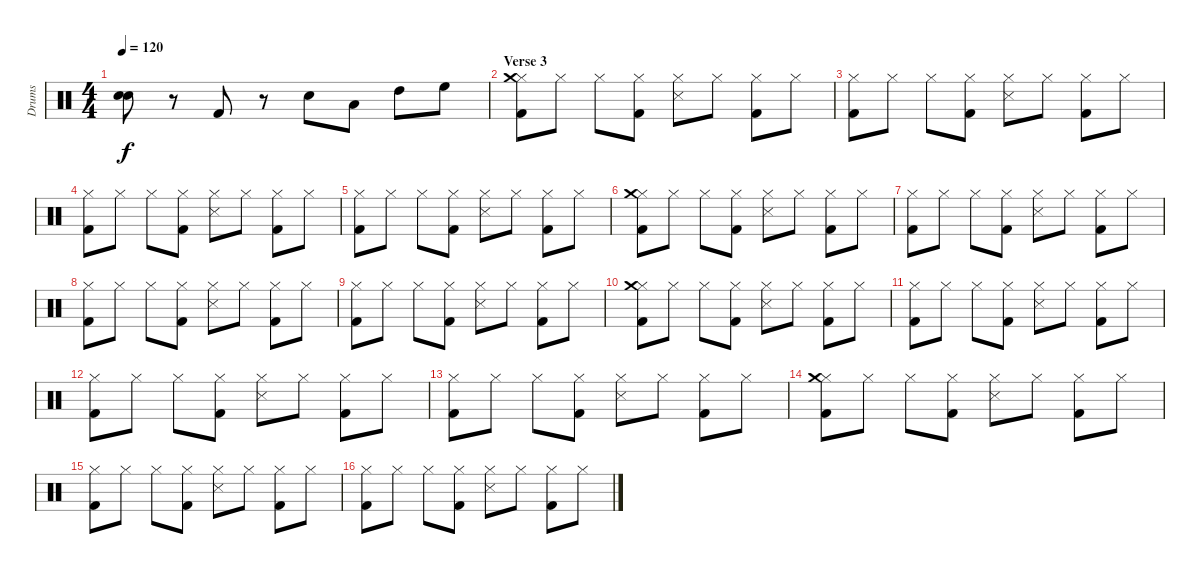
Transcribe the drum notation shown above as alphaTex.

\track ("Drums" "Drums") {instrument percussion}
\staff {score}
\articulation defaults
\ts (4 4)
\tempo 120
\clef neutral
\ks c
("Snare (hit) 2" "Electric Snare (hit)").8{dy f} r.8 "Kick (hit) 2".8 r.8 "Snare (hit) 2".8 "Low Tom (hit)".8 "High Tom (hit)".8 "High Floor Tom (hit)".8 |
\section ("" "Verse 3")
("Hi-Hat (closed)" "Kick (hit) 2" "Crash medium (hit)").8 "Hi-Hat (closed)".8 "Hi-Hat (closed)".8 ("Hi-Hat (closed)" "Kick (hit) 2").8 ("Hi-Hat (closed)" "Snare (side stick) 3").8 "Hi-Hat (closed)".8 ("Hi-Hat (closed)" "Kick (hit) 2").8 "Hi-Hat (closed)".8 |
("Hi-Hat (closed)" "Kick (hit) 2").8 "Hi-Hat (closed)".8 "Hi-Hat (closed)".8 ("Hi-Hat (closed)" "Kick (hit) 2").8 ("Hi-Hat (closed)" "Snare (side stick) 3").8 "Hi-Hat (closed)".8 ("Hi-Hat (closed)" "Kick (hit) 2").8 "Hi-Hat (closed)".8 |
("Hi-Hat (closed)" "Kick (hit) 2").8 "Hi-Hat (closed)".8 "Hi-Hat (closed)".8 ("Hi-Hat (closed)" "Kick (hit) 2").8 ("Hi-Hat (closed)" "Snare (side stick) 3").8 "Hi-Hat (closed)".8 ("Hi-Hat (closed)" "Kick (hit) 2").8 "Hi-Hat (closed)".8 |
("Hi-Hat (closed)" "Kick (hit) 2").8 "Hi-Hat (closed)".8 "Hi-Hat (closed)".8 ("Hi-Hat (closed)" "Kick (hit) 2").8 ("Hi-Hat (closed)" "Snare (side stick) 3").8 "Hi-Hat (closed)".8 ("Hi-Hat (closed)" "Kick (hit) 2").8 "Hi-Hat (closed)".8 |
("Hi-Hat (closed)" "Kick (hit) 2" "Crash medium (hit)").8 "Hi-Hat (closed)".8 "Hi-Hat (closed)".8 ("Hi-Hat (closed)" "Kick (hit) 2").8 ("Hi-Hat (closed)" "Snare (side stick) 3").8 "Hi-Hat (closed)".8 ("Hi-Hat (closed)" "Kick (hit) 2").8 "Hi-Hat (closed)".8 |
("Hi-Hat (closed)" "Kick (hit) 2").8 "Hi-Hat (closed)".8 "Hi-Hat (closed)".8 ("Hi-Hat (closed)" "Kick (hit) 2").8 ("Hi-Hat (closed)" "Snare (side stick) 3").8 "Hi-Hat (closed)".8 ("Hi-Hat (closed)" "Kick (hit) 2").8 "Hi-Hat (closed)".8 |
("Hi-Hat (closed)" "Kick (hit) 2").8 "Hi-Hat (closed)".8 "Hi-Hat (closed)".8 ("Hi-Hat (closed)" "Kick (hit) 2").8 ("Hi-Hat (closed)" "Snare (side stick) 3").8 "Hi-Hat (closed)".8 ("Hi-Hat (closed)" "Kick (hit) 2").8 "Hi-Hat (closed)".8 |
("Hi-Hat (closed)" "Kick (hit) 2").8 "Hi-Hat (closed)".8 "Hi-Hat (closed)".8 ("Hi-Hat (closed)" "Kick (hit) 2").8 ("Hi-Hat (closed)" "Snare (side stick) 3").8 "Hi-Hat (closed)".8 ("Hi-Hat (closed)" "Kick (hit) 2").8 "Hi-Hat (closed)".8 |
("Hi-Hat (closed)" "Kick (hit) 2" "Crash medium (hit)").8 "Hi-Hat (closed)".8 "Hi-Hat (closed)".8 ("Hi-Hat (closed)" "Kick (hit) 2").8 ("Hi-Hat (closed)" "Snare (side stick) 3").8 "Hi-Hat (closed)".8 ("Hi-Hat (closed)" "Kick (hit) 2").8 "Hi-Hat (closed)".8 |
("Hi-Hat (closed)" "Kick (hit) 2").8 "Hi-Hat (closed)".8 "Hi-Hat (closed)".8 ("Hi-Hat (closed)" "Kick (hit) 2").8 ("Hi-Hat (closed)" "Snare (side stick) 3").8 "Hi-Hat (closed)".8 ("Hi-Hat (closed)" "Kick (hit) 2").8 "Hi-Hat (closed)".8 |
("Hi-Hat (closed)" "Kick (hit) 2").8 "Hi-Hat (closed)".8 "Hi-Hat (closed)".8 ("Hi-Hat (closed)" "Kick (hit) 2").8 ("Hi-Hat (closed)" "Snare (side stick) 3").8 "Hi-Hat (closed)".8 ("Hi-Hat (closed)" "Kick (hit) 2").8 "Hi-Hat (closed)".8 |
("Hi-Hat (closed)" "Kick (hit) 2").8 "Hi-Hat (closed)".8 "Hi-Hat (closed)".8 ("Hi-Hat (closed)" "Kick (hit) 2").8 ("Hi-Hat (closed)" "Snare (side stick) 3").8 "Hi-Hat (closed)".8 ("Hi-Hat (closed)" "Kick (hit) 2").8 "Hi-Hat (closed)".8 |
("Hi-Hat (closed)" "Kick (hit) 2" "Crash medium (hit)").8 "Hi-Hat (closed)".8 "Hi-Hat (closed)".8 ("Hi-Hat (closed)" "Kick (hit) 2").8 ("Hi-Hat (closed)" "Snare (side stick) 3").8 "Hi-Hat (closed)".8 ("Hi-Hat (closed)" "Kick (hit) 2").8 "Hi-Hat (closed)".8 |
("Hi-Hat (closed)" "Kick (hit) 2").8 "Hi-Hat (closed)".8 "Hi-Hat (closed)".8 ("Hi-Hat (closed)" "Kick (hit) 2").8 ("Hi-Hat (closed)" "Snare (side stick) 3").8 "Hi-Hat (closed)".8 ("Hi-Hat (closed)" "Kick (hit) 2").8 "Hi-Hat (closed)".8 |
("Hi-Hat (closed)" "Kick (hit) 2").8 "Hi-Hat (closed)".8 "Hi-Hat (closed)".8 ("Hi-Hat (closed)" "Kick (hit) 2").8 ("Hi-Hat (closed)" "Snare (side stick) 3").8 "Hi-Hat (closed)".8 ("Hi-Hat (closed)" "Kick (hit) 2").8 "Hi-Hat (closed)".8
